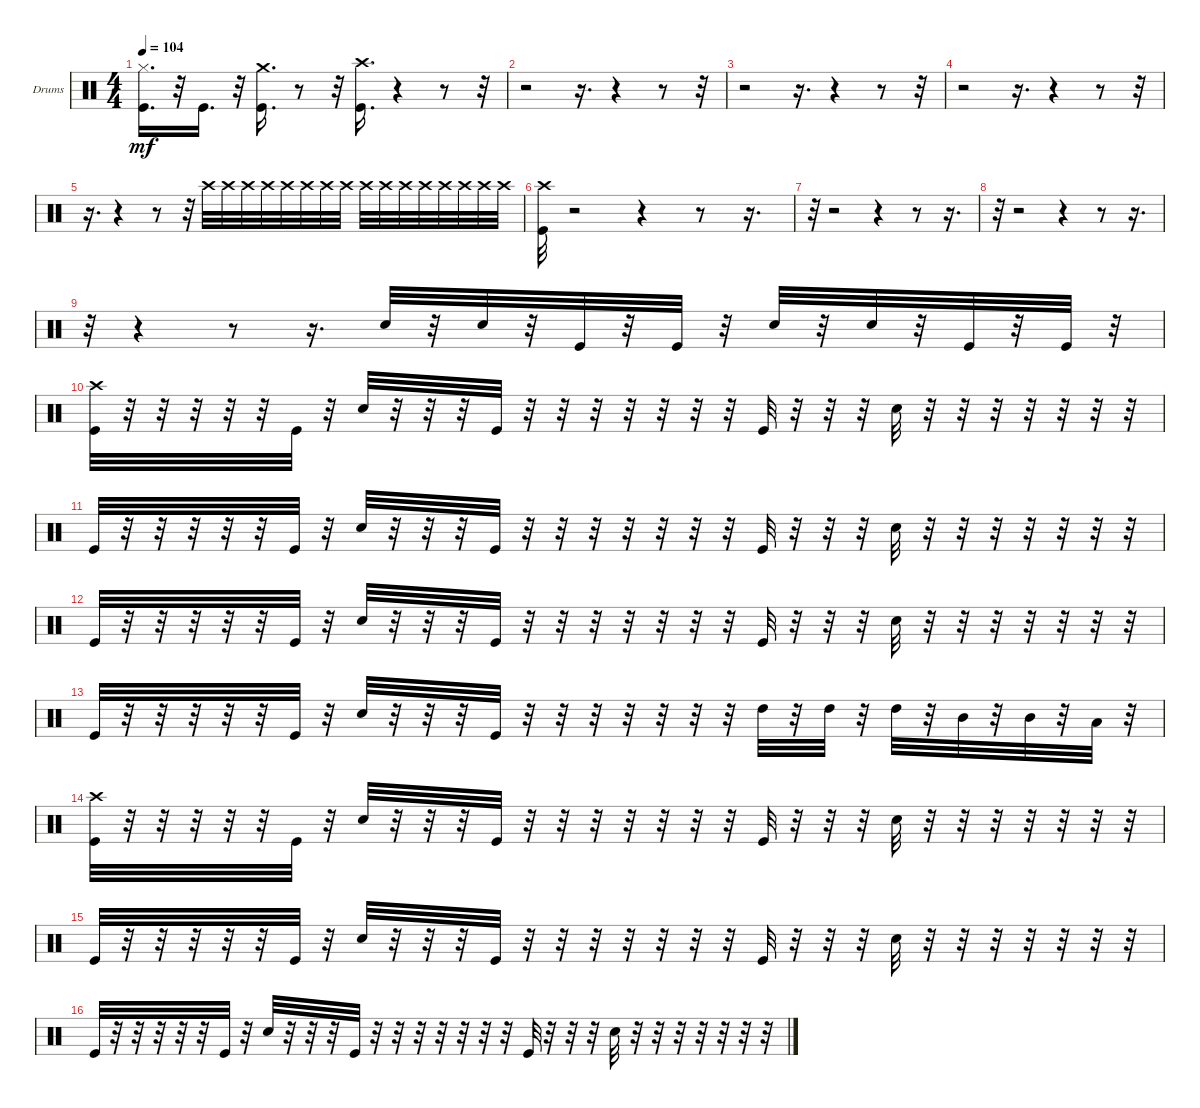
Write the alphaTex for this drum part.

\bracketExtendMode groupsimilarinstruments
\firstSystemTrackNameOrientation horizontal
\otherSystemsTrackNameOrientation horizontal
\track ("" "Drums") {instrument percussion}
\staff {score}
\articulation defaults
\ts (4 4)
\tempo 104
\clef neutral
\ks c
("Hi-Hat (closed)" "Kick (hit)").16{d dy mf} r.32 "Kick (hit)".16{d} r.32 ("Crash medium (hit)" "Kick (hit)").16{d} r.8 r.32 ("Crash high (hit)" "Kick (hit)").16{d} r.4 r.8 r.32 |
r.2 r.16{d} r.4 r.8 r.32 |
r.2 r.16{d} r.4 r.8 r.32 |
r.2 r.16{d} r.4 r.8 r.32 |
r.16{d} r.4 r.8 r.32 "Crash high (hit)".32 "Crash high (hit)".32 "Crash high (hit)".32 "Crash high (hit)".32 "Crash high (hit)".32 "Crash high (hit)".32 "Crash high (hit)".32 "Crash high (hit)".32 "Crash high (hit)".32 "Crash high (hit)".32 "Crash high (hit)".32 "Crash high (hit)".32 "Crash high (hit)".32 "Crash high (hit)".32 "Crash high (hit)".32 "Crash high (hit)".32 |
("Crash high (hit)" "Kick (hit)").32 r.2 r.4 r.8 r.16{d} |
r.32 r.2 r.4 r.8 r.16{d} |
r.32 r.2 r.4 r.8 r.16{d} |
r.32 r.4 r.8 r.16{d} "Snare (hit) 2".32 r.32 "Snare (hit) 2".32 r.32 "Kick (hit)".32 r.32 "Kick (hit)".32 r.32 "Snare (hit) 2".32 r.32 "Snare (hit) 2".32 r.32 "Kick (hit)".32 r.32 "Kick (hit)".32 r.32 |
("Crash high (hit)" "Kick (hit)").32 r.32 r.32 r.32 r.32 r.32 "Kick (hit)".32 r.32 "Snare (hit) 2".32 r.32 r.32 r.32 "Kick (hit)".32 r.32 r.32 r.32 r.32 r.32 r.32 r.32 "Kick (hit)".32 r.32 r.32 r.32 "Snare (hit) 2".32 r.32 r.32 r.32 r.32 r.32 r.32 r.32 |
"Kick (hit)".32 r.32 r.32 r.32 r.32 r.32 "Kick (hit)".32 r.32 "Snare (hit) 2".32 r.32 r.32 r.32 "Kick (hit)".32 r.32 r.32 r.32 r.32 r.32 r.32 r.32 "Kick (hit)".32 r.32 r.32 r.32 "Snare (hit) 2".32 r.32 r.32 r.32 r.32 r.32 r.32 r.32 |
"Kick (hit)".32 r.32 r.32 r.32 r.32 r.32 "Kick (hit)".32 r.32 "Snare (hit) 2".32 r.32 r.32 r.32 "Kick (hit)".32 r.32 r.32 r.32 r.32 r.32 r.32 r.32 "Kick (hit)".32 r.32 r.32 r.32 "Snare (hit) 2".32 r.32 r.32 r.32 r.32 r.32 r.32 r.32 |
"Kick (hit)".32 r.32 r.32 r.32 r.32 r.32 "Kick (hit)".32 r.32 "Snare (hit) 2".32 r.32 r.32 r.32 "Kick (hit)".32 r.32 r.32 r.32 r.32 r.32 r.32 r.32 "High Tom (hit)".32 r.32 "High Tom (hit)".32 r.32 "High Tom (hit)".32 r.32 "Mid Tom (hit)".32 r.32 "Mid Tom (hit)".32 r.32 "Low Tom (hit)".32 r.32 |
("Crash high (hit)" "Kick (hit)").32 r.32 r.32 r.32 r.32 r.32 "Kick (hit)".32 r.32 "Snare (hit) 2".32 r.32 r.32 r.32 "Kick (hit)".32 r.32 r.32 r.32 r.32 r.32 r.32 r.32 "Kick (hit)".32 r.32 r.32 r.32 "Snare (hit) 2".32 r.32 r.32 r.32 r.32 r.32 r.32 r.32 |
"Kick (hit)".32 r.32 r.32 r.32 r.32 r.32 "Kick (hit)".32 r.32 "Snare (hit) 2".32 r.32 r.32 r.32 "Kick (hit)".32 r.32 r.32 r.32 r.32 r.32 r.32 r.32 "Kick (hit)".32 r.32 r.32 r.32 "Snare (hit) 2".32 r.32 r.32 r.32 r.32 r.32 r.32 r.32 |
"Kick (hit)".32 r.32 r.32 r.32 r.32 r.32 "Kick (hit)".32 r.32 "Snare (hit) 2".32 r.32 r.32 r.32 "Kick (hit)".32 r.32 r.32 r.32 r.32 r.32 r.32 r.32 "Kick (hit)".32 r.32 r.32 r.32 "Snare (hit) 2".32 r.32 r.32 r.32 r.32 r.32 r.32 r.32
